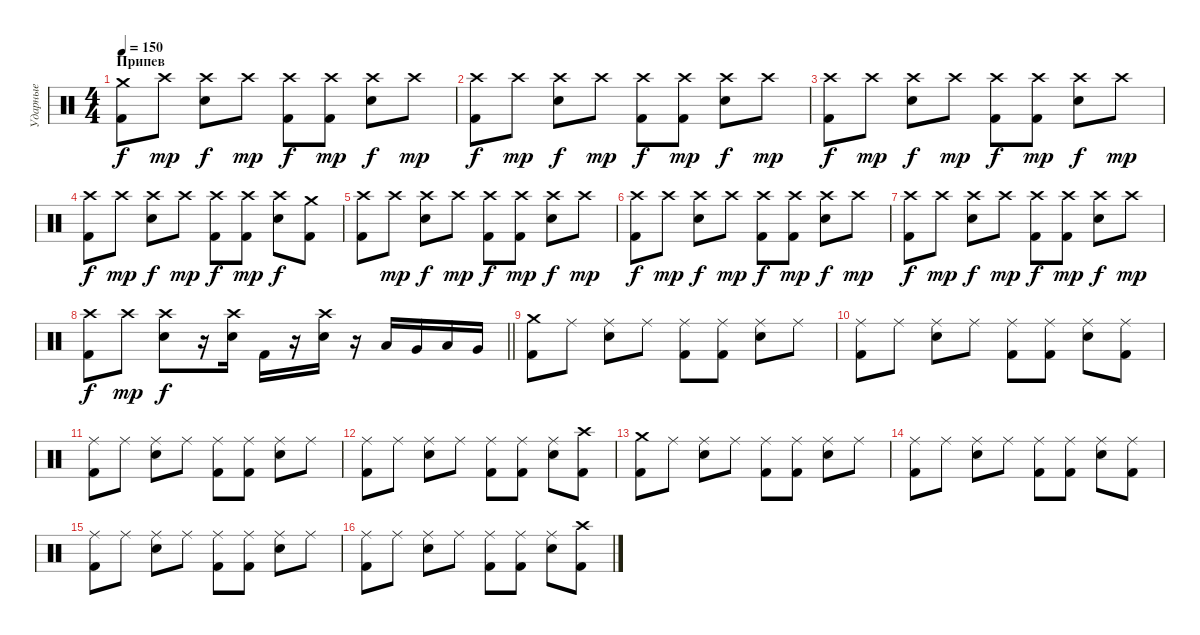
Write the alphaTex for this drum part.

\track ("Ударные" "Ударные") {instrument percussion}
\staff {score}
\articulation defaults
\ts (4 4)
\section ("" "Припев")
\tempo 150
\clef neutral
\ks c
("Crash medium (hit)" "Kick (hit) 2").8{dy f} "Crash high (hit)".8{dy mp} ("Crash high (hit)" "Electric Snare (hit)").8{dy f} "Crash high (hit)".8{dy mp} ("Crash high (hit)" "Kick (hit) 2").8{dy f} ("Crash high (hit)" "Kick (hit) 2").8{dy mp} ("Crash high (hit)" "Electric Snare (hit)").8{dy f} "Crash high (hit)".8{dy mp} |
("Crash high (hit)" "Kick (hit) 2").8{dy f} "Crash high (hit)".8{dy mp} ("Crash high (hit)" "Electric Snare (hit)").8{dy f} "Crash high (hit)".8{dy mp} ("Crash high (hit)" "Kick (hit) 2").8{dy f} ("Crash high (hit)" "Kick (hit) 2").8{dy mp} ("Crash high (hit)" "Electric Snare (hit)").8{dy f} "Crash high (hit)".8{dy mp} |
("Crash high (hit)" "Kick (hit) 2").8{dy f} "Crash high (hit)".8{dy mp} ("Crash high (hit)" "Electric Snare (hit)").8{dy f} "Crash high (hit)".8{dy mp} ("Crash high (hit)" "Kick (hit) 2").8{dy f} ("Crash high (hit)" "Kick (hit) 2").8{dy mp} ("Crash high (hit)" "Electric Snare (hit)").8{dy f} "Crash high (hit)".8{dy mp} |
("Crash high (hit)" "Kick (hit) 2").8{dy f} "Crash high (hit)".8{dy mp} ("Crash high (hit)" "Electric Snare (hit)").8{dy f} "Crash high (hit)".8{dy mp} ("Crash high (hit)" "Kick (hit) 2").8{dy f} ("Crash high (hit)" "Kick (hit) 2").8{dy mp} ("Crash high (hit)" "Electric Snare (hit)").8{dy f} ("Crash medium (hit)" "Kick (hit) 2").8 |
("Crash high (hit)" "Kick (hit) 2").8 "Crash high (hit)".8{dy mp} ("Crash high (hit)" "Electric Snare (hit)").8{dy f} "Crash high (hit)".8{dy mp} ("Crash high (hit)" "Kick (hit) 2").8{dy f} ("Crash high (hit)" "Kick (hit) 2").8{dy mp} ("Crash high (hit)" "Electric Snare (hit)").8{dy f} "Crash high (hit)".8{dy mp} |
("Crash high (hit)" "Kick (hit) 2").8{dy f} "Crash high (hit)".8{dy mp} ("Crash high (hit)" "Electric Snare (hit)").8{dy f} "Crash high (hit)".8{dy mp} ("Crash high (hit)" "Kick (hit) 2").8{dy f} ("Crash high (hit)" "Kick (hit) 2").8{dy mp} ("Crash high (hit)" "Electric Snare (hit)").8{dy f} "Crash high (hit)".8{dy mp} |
("Crash high (hit)" "Kick (hit) 2").8{dy f} "Crash high (hit)".8{dy mp} ("Crash high (hit)" "Electric Snare (hit)").8{dy f} "Crash high (hit)".8{dy mp} ("Crash high (hit)" "Kick (hit) 2").8{dy f} ("Crash high (hit)" "Kick (hit) 2").8{dy mp} ("Crash high (hit)" "Electric Snare (hit)").8{dy f} "Crash high (hit)".8{dy mp} |
\barLineRight lightlight
("Crash high (hit)" "Kick (hit) 2").8{dy f} "Crash high (hit)".8{dy mp} ("Crash high (hit)" "Electric Snare (hit)").8{dy f} r.16 ("Crash high (hit)" "Electric Snare (hit)").16 "Kick (hit) 2".16 r.16 ("Crash high (hit)" "Electric Snare (hit)").16 r.16 "Low Floor Tom (hit)".16 "Very Low Tom (hit)".16 "Low Floor Tom (hit)".16 "Very Low Tom (hit)".16 |
("Crash medium (hit)" "Kick (hit) 2").8 "Ride (middle)".8 ("Ride (middle)" "Electric Snare (hit)").8 "Ride (middle)".8 ("Ride (middle)" "Kick (hit) 2").8 ("Ride (middle)" "Kick (hit) 2").8 ("Ride (middle)" "Electric Snare (hit)").8 "Ride (middle)".8 |
("Ride (middle)" "Kick (hit) 2").8 "Ride (middle)".8 ("Ride (middle)" "Electric Snare (hit)").8 "Ride (middle)".8 ("Ride (middle)" "Kick (hit) 2").8 ("Ride (middle)" "Kick (hit) 2").8 ("Ride (middle)" "Electric Snare (hit)").8 ("Ride (middle)" "Kick (hit) 2").8 |
("Ride (middle)" "Kick (hit) 2").8 "Ride (middle)".8 ("Ride (middle)" "Electric Snare (hit)").8 "Ride (middle)".8 ("Ride (middle)" "Kick (hit) 2").8 ("Ride (middle)" "Kick (hit) 2").8 ("Ride (middle)" "Electric Snare (hit)").8 "Ride (middle)".8 |
("Ride (middle)" "Kick (hit) 2").8 "Ride (middle)".8 ("Ride (middle)" "Electric Snare (hit)").8 "Ride (middle)".8 ("Ride (middle)" "Kick (hit) 2").8 ("Ride (middle)" "Kick (hit) 2").8 ("Ride (middle)" "Electric Snare (hit)").8 ("Crash high (hit)" "Kick (hit) 2").8 |
("Crash medium (hit)" "Kick (hit) 2").8 "Ride (middle)".8 ("Ride (middle)" "Electric Snare (hit)").8 "Ride (middle)".8 ("Ride (middle)" "Kick (hit) 2").8 ("Ride (middle)" "Kick (hit) 2").8 ("Ride (middle)" "Electric Snare (hit)").8 "Ride (middle)".8 |
("Ride (middle)" "Kick (hit) 2").8 "Ride (middle)".8 ("Ride (middle)" "Electric Snare (hit)").8 "Ride (middle)".8 ("Ride (middle)" "Kick (hit) 2").8 ("Ride (middle)" "Kick (hit) 2").8 ("Ride (middle)" "Electric Snare (hit)").8 ("Ride (middle)" "Kick (hit) 2").8 |
("Ride (middle)" "Kick (hit) 2").8 "Ride (middle)".8 ("Ride (middle)" "Electric Snare (hit)").8 "Ride (middle)".8 ("Ride (middle)" "Kick (hit) 2").8 ("Ride (middle)" "Kick (hit) 2").8 ("Ride (middle)" "Electric Snare (hit)").8 "Ride (middle)".8 |
("Ride (middle)" "Kick (hit) 2").8 "Ride (middle)".8 ("Ride (middle)" "Electric Snare (hit)").8 "Ride (middle)".8 ("Ride (middle)" "Kick (hit) 2").8 ("Ride (middle)" "Kick (hit) 2").8 ("Ride (middle)" "Electric Snare (hit)").8 ("Crash high (hit)" "Kick (hit) 2").8
